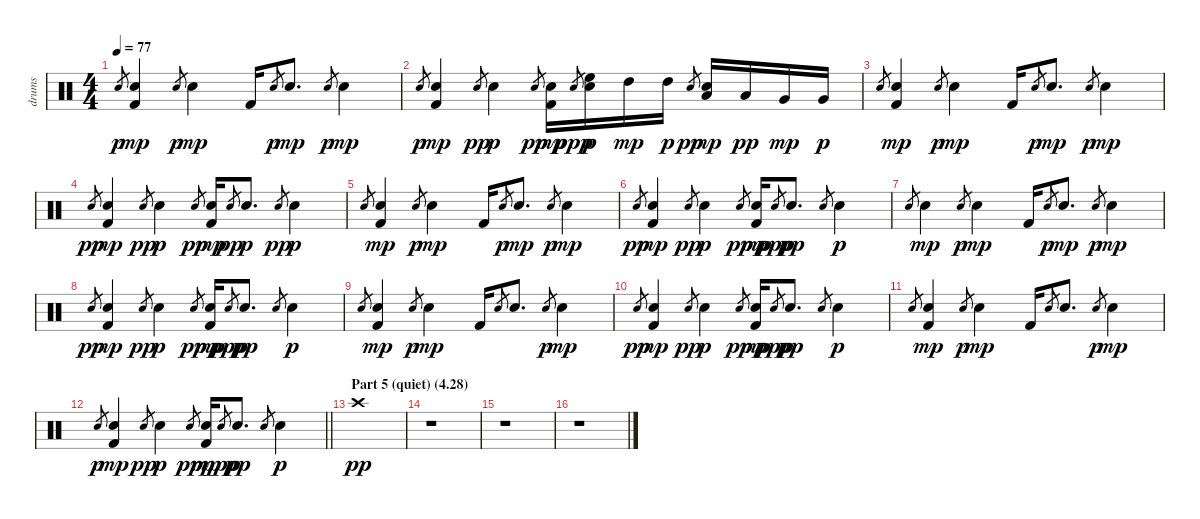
\track ("drums" "drums") {instrument percussion}
\staff {score}
\articulation defaults
\ts (4 4)
\tempo 77
\clef neutral
\ks c "Snare (hit) 2".8{gr dy p}
("Snare (hit) 2" "Kick (hit) 2").4{dy mp} "Snare (hit) 2".8{gr dy p} "Snare (hit) 2".4{dy mp} "Kick (hit) 2".16 "Snare (hit) 2".8{gr dy p} "Snare (hit) 2".8{d dy mp} "Snare (hit) 2".8{gr dy p} "Snare (hit) 2".4{dy mp} |
"Snare (hit) 2".8{gr dy p} ("Snare (hit) 2" "Kick (hit) 2").4{dy mp} "Snare (hit) 2".8{gr dy pp} "Snare (hit) 2".4{dy p} "Snare (hit) 2".8{gr dy pp} ("Snare (hit) 2" "Kick (hit) 2").16{dy mp} "Snare (hit) 2".8{gr dy ppp} ("Snare (hit) 2" "High Floor Tom (hit)").16{dy p} "High Tom (hit)".16{dy mp} "High Tom (hit)".16{dy p} "Snare (hit) 2".8{gr dy pp} ("Snare (hit) 2" "Low Tom (hit)").16{dy mp} "Low Tom (hit)".16{dy pp} "Very Low Tom (hit)".16{dy mp} "Very Low Tom (hit)".16{dy p} |
"Snare (hit) 2".8{gr} ("Snare (hit) 2" "Kick (hit) 2").4{dy mp} "Snare (hit) 2".8{gr dy p} "Snare (hit) 2".4{dy mp} "Kick (hit) 2".16 "Snare (hit) 2".8{gr dy p} "Snare (hit) 2".8{d dy mp} "Snare (hit) 2".8{gr dy p} "Snare (hit) 2".4{dy mp} |
"Snare (hit) 2".8{gr dy pp} ("Snare (hit) 2" "Kick (hit) 2").4{dy mp} "Snare (hit) 2".8{gr dy pp} "Snare (hit) 2".4{dy p} "Snare (hit) 2".8{gr dy pp} ("Snare (hit) 2" "Kick (hit) 2").16{dy mp} "Snare (hit) 2".8{gr dy pp} "Snare (hit) 2".8{d dy p} "Snare (hit) 2".8{gr dy pp} "Snare (hit) 2".4{dy p} |
"Snare (hit) 2".8{gr} ("Snare (hit) 2" "Kick (hit) 2").4{dy mp} "Snare (hit) 2".8{gr dy p} "Snare (hit) 2".4{dy mp} "Kick (hit) 2".16 "Snare (hit) 2".8{gr dy p} "Snare (hit) 2".8{d dy mp} "Snare (hit) 2".8{gr dy p} "Snare (hit) 2".4{dy mp} |
"Snare (hit) 2".8{gr dy pp} ("Snare (hit) 2" "Kick (hit) 2").4{dy mp} "Snare (hit) 2".8{gr dy pp} "Snare (hit) 2".4{dy p} "Snare (hit) 2".8{gr dy pp} ("Snare (hit) 2" "Kick (hit) 2").16{dy mp} "Snare (hit) 2".8{gr dy ppp} "Snare (hit) 2".8{d dy pp} "Snare (hit) 2".8{gr} "Snare (hit) 2".4{dy p} |
"Snare (hit) 2".8{gr} "Snare (hit) 2".4{dy mp} "Snare (hit) 2".8{gr dy p} "Snare (hit) 2".4{dy mp} "Kick (hit) 2".16 "Snare (hit) 2".8{gr dy p} "Snare (hit) 2".8{d dy mp} "Snare (hit) 2".8{gr dy p} "Snare (hit) 2".4{dy mp} |
"Snare (hit) 2".8{gr dy pp} ("Snare (hit) 2" "Kick (hit) 2").4{dy mp} "Snare (hit) 2".8{gr dy pp} "Snare (hit) 2".4{dy p} "Snare (hit) 2".8{gr dy pp} ("Snare (hit) 2" "Kick (hit) 2").16{dy mp} "Snare (hit) 2".8{gr dy ppp} "Snare (hit) 2".8{d dy pp} "Snare (hit) 2".8{gr} "Snare (hit) 2".4{dy p} |
"Snare (hit) 2".8{gr} ("Snare (hit) 2" "Kick (hit) 2").4{dy mp} "Snare (hit) 2".8{gr dy p} "Snare (hit) 2".4{dy mp} "Kick (hit) 2".16 "Snare (hit) 2".8{gr} "Snare (hit) 2".8{d} "Snare (hit) 2".8{gr dy p} "Snare (hit) 2".4{dy mp} |
"Snare (hit) 2".8{gr dy pp} ("Snare (hit) 2" "Kick (hit) 2").4{dy mp} "Snare (hit) 2".8{gr dy pp} "Snare (hit) 2".4{dy p} "Snare (hit) 2".8{gr dy pp} ("Snare (hit) 2" "Kick (hit) 2").16{dy mp} "Snare (hit) 2".8{gr dy ppp} "Snare (hit) 2".8{d dy pp} "Snare (hit) 2".8{gr} "Snare (hit) 2".4{dy p} |
"Snare (hit) 2".8{gr} ("Snare (hit) 2" "Kick (hit) 2").4{dy mp} "Snare (hit) 2".8{gr dy p} "Snare (hit) 2".4{dy mp} "Kick (hit) 2".16 "Snare (hit) 2".8{gr} "Snare (hit) 2".8{d} "Snare (hit) 2".8{gr dy p} "Snare (hit) 2".4{dy mp} |
\barLineRight lightlight "Snare (hit) 2".8{gr dy p}
("Snare (hit) 2" "Kick (hit) 2").4{dy mp} "Snare (hit) 2".8{gr dy pp} "Snare (hit) 2".4{dy p} "Snare (hit) 2".8{gr dy pp} ("Snare (hit) 2" "Kick (hit) 2").16{dy mp} "Snare (hit) 2".8{gr dy ppp} "Snare (hit) 2".8{d dy pp} "Snare (hit) 2".8{gr} "Snare (hit) 2".4{dy p} |
\section ("" "Part 5 (quiet) (4.28)")
"Crash high (hit)".1{dy pp} |
r.1 |
r.1 |
r.1
